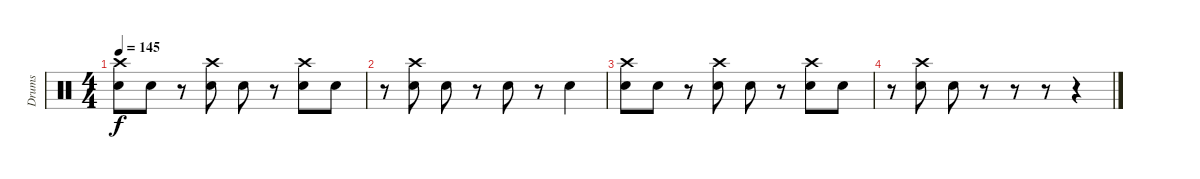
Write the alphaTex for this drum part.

\track ("Drums" "Drums") {instrument percussion}
\staff {score}
\articulation defaults
\ts (4 4)
\tempo 145
\clef neutral
\ks c
("Crash high (hit)" "Electric Snare (hit)").8{dy f} "Electric Snare (hit)".8 r.8 ("Crash high (hit)" "Electric Snare (hit)").8 "Electric Snare (hit)".8 r.8 ("Crash high (hit)" "Electric Snare (hit)").8 "Electric Snare (hit)".8 |
r.8 ("Crash high (hit)" "Electric Snare (hit)").8 "Electric Snare (hit)".8 r.8 "Electric Snare (hit)".8 r.8 "Electric Snare (hit)".4 |
("Crash high (hit)" "Electric Snare (hit)").8 "Electric Snare (hit)".8 r.8 ("Crash high (hit)" "Electric Snare (hit)").8 "Electric Snare (hit)".8 r.8 ("Crash high (hit)" "Electric Snare (hit)").8 "Electric Snare (hit)".8 |
r.8 ("Crash high (hit)" "Electric Snare (hit)").8 "Electric Snare (hit)".8 r.8 r.8 r.8 r.4
